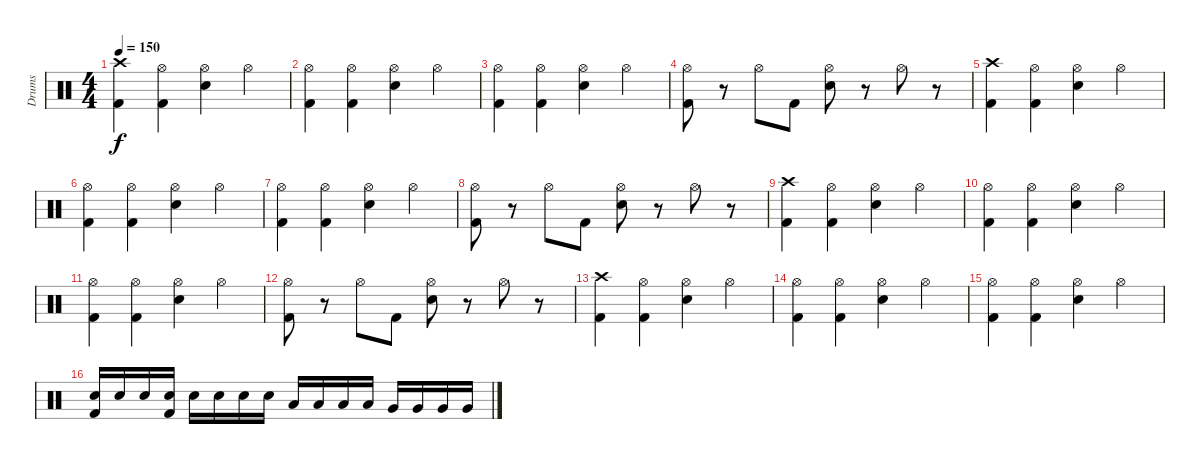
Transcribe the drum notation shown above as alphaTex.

\track ("Drums" "Drums") {instrument percussion}
\staff {score}
\articulation defaults
\ts (4 4)
\tempo 150
\clef neutral
\ks c
("Crash high (hit)" "Kick (hit) 2").4{dy f} ("Hi-Hat (open)" "Kick (hit) 2").4 ("Hi-Hat (open)" "Electric Snare (hit)").4 "Hi-Hat (open)".4 |
("Hi-Hat (open)" "Kick (hit) 2").4 ("Hi-Hat (open)" "Kick (hit) 2").4 ("Hi-Hat (open)" "Electric Snare (hit)").4 "Hi-Hat (open)".4 |
("Hi-Hat (open)" "Kick (hit) 2").4 ("Hi-Hat (open)" "Kick (hit) 2").4 ("Hi-Hat (open)" "Electric Snare (hit)").4 "Hi-Hat (open)".4 |
("Hi-Hat (open)" "Kick (hit) 2").8 r.8 "Hi-Hat (open)".8 "Kick (hit) 2".8 ("Hi-Hat (open)" "Electric Snare (hit)").8 r.8 "Hi-Hat (open)".8 r.8 |
("Crash high (hit)" "Kick (hit) 2").4 ("Hi-Hat (open)" "Kick (hit) 2").4 ("Hi-Hat (open)" "Electric Snare (hit)").4 "Hi-Hat (open)".4 |
("Hi-Hat (open)" "Kick (hit) 2").4 ("Hi-Hat (open)" "Kick (hit) 2").4 ("Hi-Hat (open)" "Electric Snare (hit)").4 "Hi-Hat (open)".4 |
("Hi-Hat (open)" "Kick (hit) 2").4 ("Hi-Hat (open)" "Kick (hit) 2").4 ("Hi-Hat (open)" "Electric Snare (hit)").4 "Hi-Hat (open)".4 |
("Hi-Hat (open)" "Kick (hit) 2").8 r.8 "Hi-Hat (open)".8 "Kick (hit) 2".8 ("Hi-Hat (open)" "Electric Snare (hit)").8 r.8 "Hi-Hat (open)".8 r.8 |
("Crash high (hit)" "Kick (hit) 2").4 ("Hi-Hat (open)" "Kick (hit) 2").4 ("Hi-Hat (open)" "Electric Snare (hit)").4 "Hi-Hat (open)".4 |
("Hi-Hat (open)" "Kick (hit) 2").4 ("Hi-Hat (open)" "Kick (hit) 2").4 ("Hi-Hat (open)" "Electric Snare (hit)").4 "Hi-Hat (open)".4 |
("Hi-Hat (open)" "Kick (hit) 2").4 ("Hi-Hat (open)" "Kick (hit) 2").4 ("Hi-Hat (open)" "Electric Snare (hit)").4 "Hi-Hat (open)".4 |
("Hi-Hat (open)" "Kick (hit) 2").8 r.8 "Hi-Hat (open)".8 "Kick (hit) 2".8 ("Hi-Hat (open)" "Electric Snare (hit)").8 r.8 "Hi-Hat (open)".8 r.8 |
("Crash high (hit)" "Kick (hit) 2").4 ("Hi-Hat (open)" "Kick (hit) 2").4 ("Hi-Hat (open)" "Electric Snare (hit)").4 "Hi-Hat (open)".4 |
("Hi-Hat (open)" "Kick (hit) 2").4 ("Hi-Hat (open)" "Kick (hit) 2").4 ("Hi-Hat (open)" "Electric Snare (hit)").4 "Hi-Hat (open)".4 |
("Hi-Hat (open)" "Kick (hit) 2").4 ("Hi-Hat (open)" "Kick (hit) 2").4 ("Hi-Hat (open)" "Electric Snare (hit)").4 "Hi-Hat (open)".4 |
("Electric Snare (hit)" "Kick (hit) 2").16 "Electric Snare (hit)".16 "Electric Snare (hit)".16 ("Electric Snare (hit)" "Kick (hit) 2").16 "Electric Snare (hit)".16 "Electric Snare (hit)".16 "Electric Snare (hit)".16 "Electric Snare (hit)".16 "Low Tom (hit)".16 "Low Tom (hit)".16 "Low Tom (hit)".16 "Low Tom (hit)".16 "Very Low Tom (hit)".16 "Very Low Tom (hit)".16 "Very Low Tom (hit)".16 "Very Low Tom (hit)".16
